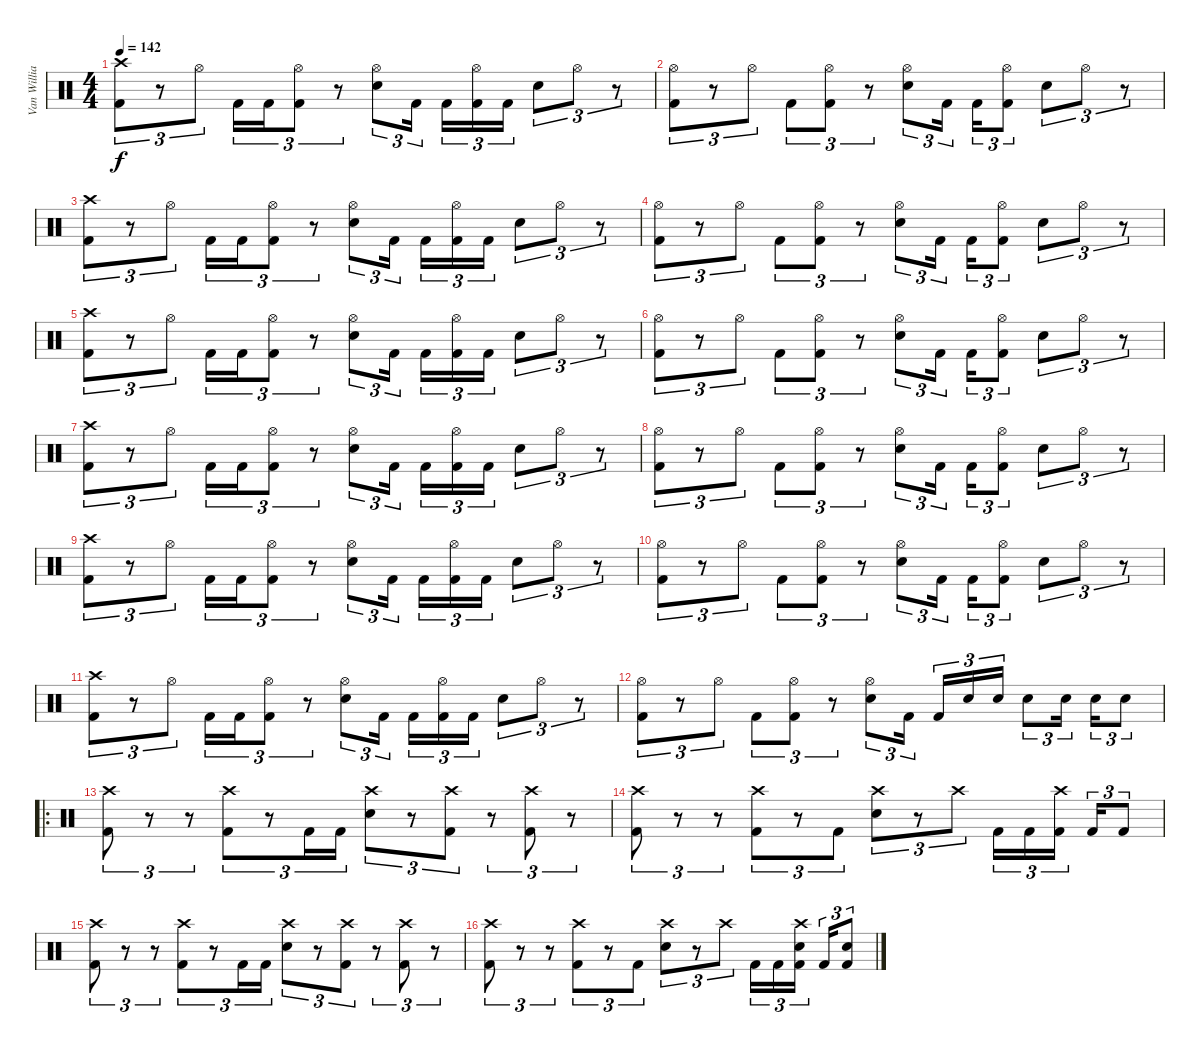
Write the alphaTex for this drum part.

\track ("Van Williams" "Van Willia") {instrument percussion}
\staff {score}
\articulation defaults
\ts (4 4)
\tempo 142
\clef neutral
\ks c
("Crash high (hit)" "Kick (hit) 2").8{tu (3 2) dy f} r.8{tu (3 2)} "Hi-Hat (open)".8{tu (3 2)} "Kick (hit) 2".16{tu (3 2)} "Kick (hit) 2".16{tu (3 2)} ("Hi-Hat (open)" "Kick (hit) 2").8{tu (3 2)} r.8{tu (3 2)} ("Hi-Hat (open)" "Electric Snare (hit)").8{tu (3 2)} "Kick (hit) 2".16{tu (3 2)} "Kick (hit) 2".16{tu (3 2)} ("Hi-Hat (open)" "Kick (hit) 2").16{tu (3 2)} "Kick (hit) 2".16{tu (3 2)} "Electric Snare (hit)".8{tu (3 2)} "Hi-Hat (open)".8{tu (3 2)} r.8{tu (3 2)} |
("Hi-Hat (open)" "Kick (hit) 2").8{tu (3 2)} r.8{tu (3 2)} "Hi-Hat (open)".8{tu (3 2)} "Kick (hit) 2".8{tu (3 2)} ("Hi-Hat (open)" "Kick (hit) 2").8{tu (3 2)} r.8{tu (3 2)} ("Hi-Hat (open)" "Electric Snare (hit)").8{tu (3 2)} "Kick (hit) 2".16{tu (3 2)} "Kick (hit) 2".16{tu (3 2)} ("Hi-Hat (open)" "Kick (hit) 2").8{tu (3 2)} "Electric Snare (hit)".8{tu (3 2)} "Hi-Hat (open)".8{tu (3 2)} r.8{tu (3 2)} |
("Crash high (hit)" "Kick (hit) 2").8{tu (3 2)} r.8{tu (3 2)} "Hi-Hat (open)".8{tu (3 2)} "Kick (hit) 2".16{tu (3 2)} "Kick (hit) 2".16{tu (3 2)} ("Hi-Hat (open)" "Kick (hit) 2").8{tu (3 2)} r.8{tu (3 2)} ("Hi-Hat (open)" "Electric Snare (hit)").8{tu (3 2)} "Kick (hit) 2".16{tu (3 2)} "Kick (hit) 2".16{tu (3 2)} ("Hi-Hat (open)" "Kick (hit) 2").16{tu (3 2)} "Kick (hit) 2".16{tu (3 2)} "Electric Snare (hit)".8{tu (3 2)} "Hi-Hat (open)".8{tu (3 2)} r.8{tu (3 2)} |
("Hi-Hat (open)" "Kick (hit) 2").8{tu (3 2)} r.8{tu (3 2)} "Hi-Hat (open)".8{tu (3 2)} "Kick (hit) 2".8{tu (3 2)} ("Hi-Hat (open)" "Kick (hit) 2").8{tu (3 2)} r.8{tu (3 2)} ("Hi-Hat (open)" "Electric Snare (hit)").8{tu (3 2)} "Kick (hit) 2".16{tu (3 2)} "Kick (hit) 2".16{tu (3 2)} ("Hi-Hat (open)" "Kick (hit) 2").8{tu (3 2)} "Electric Snare (hit)".8{tu (3 2)} "Hi-Hat (open)".8{tu (3 2)} r.8{tu (3 2)} |
("Crash high (hit)" "Kick (hit) 2").8{tu (3 2)} r.8{tu (3 2)} "Hi-Hat (open)".8{tu (3 2)} "Kick (hit) 2".16{tu (3 2)} "Kick (hit) 2".16{tu (3 2)} ("Hi-Hat (open)" "Kick (hit) 2").8{tu (3 2)} r.8{tu (3 2)} ("Hi-Hat (open)" "Electric Snare (hit)").8{tu (3 2)} "Kick (hit) 2".16{tu (3 2)} "Kick (hit) 2".16{tu (3 2)} ("Hi-Hat (open)" "Kick (hit) 2").16{tu (3 2)} "Kick (hit) 2".16{tu (3 2)} "Electric Snare (hit)".8{tu (3 2)} "Hi-Hat (open)".8{tu (3 2)} r.8{tu (3 2)} |
("Hi-Hat (open)" "Kick (hit) 2").8{tu (3 2)} r.8{tu (3 2)} "Hi-Hat (open)".8{tu (3 2)} "Kick (hit) 2".8{tu (3 2)} ("Hi-Hat (open)" "Kick (hit) 2").8{tu (3 2)} r.8{tu (3 2)} ("Hi-Hat (open)" "Electric Snare (hit)").8{tu (3 2)} "Kick (hit) 2".16{tu (3 2)} "Kick (hit) 2".16{tu (3 2)} ("Hi-Hat (open)" "Kick (hit) 2").8{tu (3 2)} "Electric Snare (hit)".8{tu (3 2)} "Hi-Hat (open)".8{tu (3 2)} r.8{tu (3 2)} |
("Crash high (hit)" "Kick (hit) 2").8{tu (3 2)} r.8{tu (3 2)} "Hi-Hat (open)".8{tu (3 2)} "Kick (hit) 2".16{tu (3 2)} "Kick (hit) 2".16{tu (3 2)} ("Hi-Hat (open)" "Kick (hit) 2").8{tu (3 2)} r.8{tu (3 2)} ("Hi-Hat (open)" "Electric Snare (hit)").8{tu (3 2)} "Kick (hit) 2".16{tu (3 2)} "Kick (hit) 2".16{tu (3 2)} ("Hi-Hat (open)" "Kick (hit) 2").16{tu (3 2)} "Kick (hit) 2".16{tu (3 2)} "Electric Snare (hit)".8{tu (3 2)} "Hi-Hat (open)".8{tu (3 2)} r.8{tu (3 2)} |
("Hi-Hat (open)" "Kick (hit) 2").8{tu (3 2)} r.8{tu (3 2)} "Hi-Hat (open)".8{tu (3 2)} "Kick (hit) 2".8{tu (3 2)} ("Hi-Hat (open)" "Kick (hit) 2").8{tu (3 2)} r.8{tu (3 2)} ("Hi-Hat (open)" "Electric Snare (hit)").8{tu (3 2)} "Kick (hit) 2".16{tu (3 2)} "Kick (hit) 2".16{tu (3 2)} ("Hi-Hat (open)" "Kick (hit) 2").8{tu (3 2)} "Electric Snare (hit)".8{tu (3 2)} "Hi-Hat (open)".8{tu (3 2)} r.8{tu (3 2)} |
("Crash high (hit)" "Kick (hit) 2").8{tu (3 2)} r.8{tu (3 2)} "Hi-Hat (open)".8{tu (3 2)} "Kick (hit) 2".16{tu (3 2)} "Kick (hit) 2".16{tu (3 2)} ("Hi-Hat (open)" "Kick (hit) 2").8{tu (3 2)} r.8{tu (3 2)} ("Hi-Hat (open)" "Electric Snare (hit)").8{tu (3 2)} "Kick (hit) 2".16{tu (3 2)} "Kick (hit) 2".16{tu (3 2)} ("Hi-Hat (open)" "Kick (hit) 2").16{tu (3 2)} "Kick (hit) 2".16{tu (3 2)} "Electric Snare (hit)".8{tu (3 2)} "Hi-Hat (open)".8{tu (3 2)} r.8{tu (3 2)} |
("Hi-Hat (open)" "Kick (hit) 2").8{tu (3 2)} r.8{tu (3 2)} "Hi-Hat (open)".8{tu (3 2)} "Kick (hit) 2".8{tu (3 2)} ("Hi-Hat (open)" "Kick (hit) 2").8{tu (3 2)} r.8{tu (3 2)} ("Hi-Hat (open)" "Electric Snare (hit)").8{tu (3 2)} "Kick (hit) 2".16{tu (3 2)} "Kick (hit) 2".16{tu (3 2)} ("Hi-Hat (open)" "Kick (hit) 2").8{tu (3 2)} "Electric Snare (hit)".8{tu (3 2)} "Hi-Hat (open)".8{tu (3 2)} r.8{tu (3 2)} |
("Crash high (hit)" "Kick (hit) 2").8{tu (3 2)} r.8{tu (3 2)} "Hi-Hat (open)".8{tu (3 2)} "Kick (hit) 2".16{tu (3 2)} "Kick (hit) 2".16{tu (3 2)} ("Hi-Hat (open)" "Kick (hit) 2").8{tu (3 2)} r.8{tu (3 2)} ("Hi-Hat (open)" "Electric Snare (hit)").8{tu (3 2)} "Kick (hit) 2".16{tu (3 2)} "Kick (hit) 2".16{tu (3 2)} ("Hi-Hat (open)" "Kick (hit) 2").16{tu (3 2)} "Kick (hit) 2".16{tu (3 2)} "Electric Snare (hit)".8{tu (3 2)} "Hi-Hat (open)".8{tu (3 2)} r.8{tu (3 2)} |
("Hi-Hat (open)" "Kick (hit) 2").8{tu (3 2)} r.8{tu (3 2)} "Hi-Hat (open)".8{tu (3 2)} "Kick (hit) 2".8{tu (3 2)} ("Hi-Hat (open)" "Kick (hit) 2").8{tu (3 2)} r.8{tu (3 2)} ("Hi-Hat (open)" "Electric Snare (hit)").8{tu (3 2)} "Kick (hit) 2".16{tu (3 2)} "Kick (hit) 2".16{tu (3 2)} "Electric Snare (hit)".16{tu (3 2)} "Electric Snare (hit)".16{tu (3 2)} "Electric Snare (hit)".8{tu (3 2)} "Electric Snare (hit)".16{tu (3 2)} "Electric Snare (hit)".16{tu (3 2)} "Electric Snare (hit)".8{tu (3 2)} |
\ro
("Crash high (hit)" "Kick (hit) 2").8{tu (3 2)} r.8{tu (3 2)} r.8{tu (3 2)} ("Crash high (hit)" "Kick (hit) 2").8{tu (3 2)} r.8{tu (3 2)} "Kick (hit) 2".16{tu (3 2)} "Kick (hit) 2".16{tu (3 2)} ("Crash high (hit)" "Electric Snare (hit)").8{tu (3 2)} r.8{tu (3 2)} ("Crash high (hit)" "Kick (hit) 2").8{tu (3 2)} r.8{tu (3 2)} ("Crash high (hit)" "Kick (hit) 2").8{tu (3 2)} r.8{tu (3 2)} |
("Crash high (hit)" "Kick (hit) 2").8{tu (3 2)} r.8{tu (3 2)} r.8{tu (3 2)} ("Crash high (hit)" "Kick (hit) 2").8{tu (3 2)} r.8{tu (3 2)} "Kick (hit) 2".8{tu (3 2)} ("Crash high (hit)" "Electric Snare (hit)").8{tu (3 2)} r.8{tu (3 2)} "Crash high (hit)".8{tu (3 2)} "Kick (hit) 2".16{tu (3 2)} "Kick (hit) 2".16{tu (3 2)} ("Crash high (hit)" "Kick (hit) 2").16{tu (3 2)} "Kick (hit) 2".16{tu (3 2)} "Kick (hit) 2".8{tu (3 2)} |
("Crash high (hit)" "Kick (hit) 2").8{tu (3 2)} r.8{tu (3 2)} r.8{tu (3 2)} ("Crash high (hit)" "Kick (hit) 2").8{tu (3 2)} r.8{tu (3 2)} "Kick (hit) 2".16{tu (3 2)} "Kick (hit) 2".16{tu (3 2)} ("Crash high (hit)" "Electric Snare (hit)").8{tu (3 2)} r.8{tu (3 2)} ("Crash high (hit)" "Kick (hit) 2").8{tu (3 2)} r.8{tu (3 2)} ("Crash high (hit)" "Kick (hit) 2").8{tu (3 2)} r.8{tu (3 2)} |
("Crash high (hit)" "Kick (hit) 2").8{tu (3 2)} r.8{tu (3 2)} r.8{tu (3 2)} ("Crash high (hit)" "Kick (hit) 2").8{tu (3 2)} r.8{tu (3 2)} "Kick (hit) 2".8{tu (3 2)} ("Crash high (hit)" "Electric Snare (hit)").8{tu (3 2)} r.8{tu (3 2)} "Crash high (hit)".8{tu (3 2)} "Kick (hit) 2".16{tu (3 2)} "Kick (hit) 2".16{tu (3 2)} ("Crash high (hit)" "Kick (hit) 2" "Electric Snare (hit)").16{tu (3 2)} "Kick (hit) 2".16{tu (3 2)} ("Kick (hit) 2" "Electric Snare (hit)").8{tu (3 2)}
